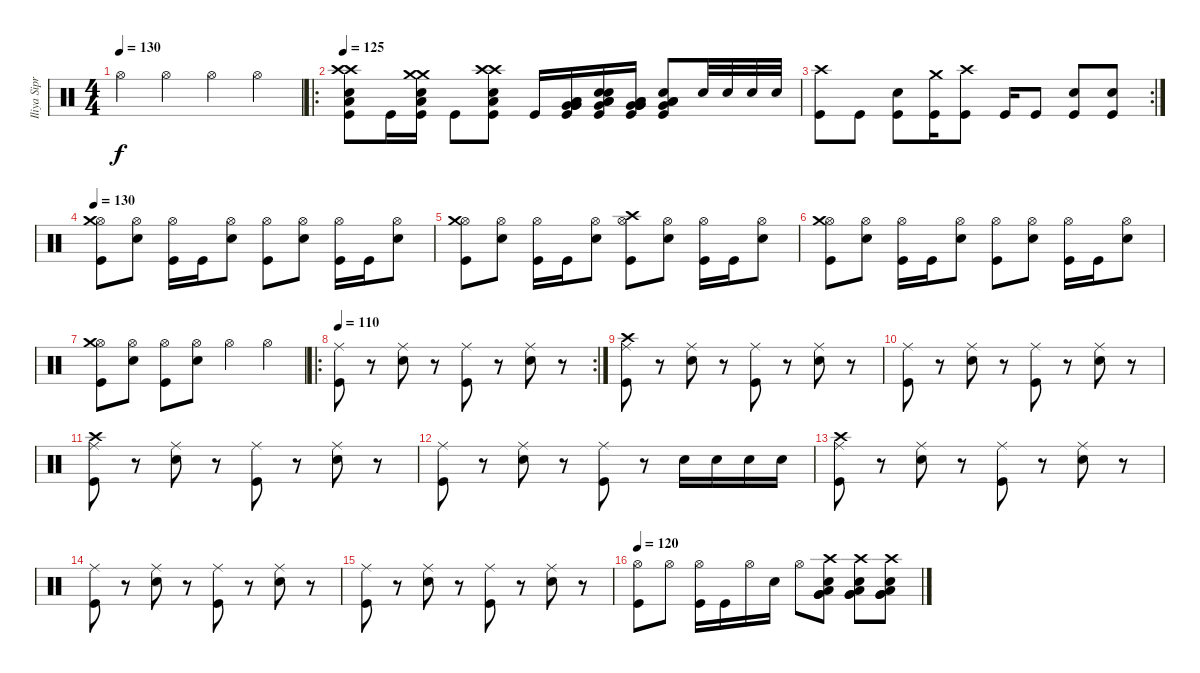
\track ("Iliya Siprov (DRUMS)" "Iliya Sipr") {instrument percussion}
\staff {score}
\articulation defaults
\ts (4 4)
\tempo 130
\tempo 120
\tempo 130
\clef neutral
\ks c "Hi-Hat (open)".4{dy f} "Hi-Hat (open)".4 "Hi-Hat (open)".4 "Hi-Hat (open)".4
|
\ro
\tempo 125
("Crash high (hit)" "Crash high (hit)" "Electric Snare (hit)" "Low Floor Tom (hit)" "Kick (hit)").8 "Kick (hit)".16 ("Crash medium (hit)" "Crash medium (hit)" "Electric Snare (hit)" "Low Floor Tom (hit)" "Kick (hit)").16 "Kick (hit)".8 ("Crash high (hit)" "Crash high (hit)" "Electric Snare (hit)" "Low Floor Tom (hit)" "Kick (hit)").8 "Kick (hit)".16 ("Very Low Tom (hit)" "Low Floor Tom (hit)" "Very Low Tom (hit)" "Low Floor Tom (hit)" "Very Low Tom (hit)" "Kick (hit)").16 ("Very Low Tom (hit)" "Electric Snare (hit)" "Electric Snare (hit)" "Low Floor Tom (hit)" "Low Floor Tom (hit)" "Kick (hit)").16 ("Very Low Tom (hit)" "Very Low Tom (hit)" "Very Low Tom (hit)" "Low Floor Tom (hit)" "Low Floor Tom (hit)" "Kick (hit)").16 ("Low Floor Tom (hit)" "Low Floor Tom (hit)" "Very Low Tom (hit)" "Electric Snare (hit)" "Kick (hit)").8 "Electric Snare (hit)".32 "Electric Snare (hit)".32 "Electric Snare (hit)".32 "Electric Snare (hit)".32 |
\rc 2
("Crash high (hit)" "Kick (hit)").8 "Kick (hit)".8 ("Electric Snare (hit)" "Kick (hit)").8 ("Crash medium (hit)" "Kick (hit)").16 ("Crash high (hit)" "Kick (hit)").8 "Kick (hit)".16 "Kick (hit)".8 ("Electric Snare (hit)" "Kick (hit)").8 ("Electric Snare (hit)" "Kick (hit)").8 |
\tempo 130
("Hi-Hat (open)" "Crash medium (hit)" "Kick (hit)").8 ("Hi-Hat (open)" "Electric Snare (hit)").8 ("Hi-Hat (open)" "Kick (hit)").16 "Kick (hit)".16 ("Hi-Hat (open)" "Electric Snare (hit)").8 ("Hi-Hat (open)" "Kick (hit)").8 ("Hi-Hat (open)" "Electric Snare (hit)").8 ("Hi-Hat (open)" "Kick (hit)").16 "Kick (hit)".16 ("Hi-Hat (open)" "Electric Snare (hit)").8 |
("Hi-Hat (open)" "Crash medium (hit)" "Kick (hit)").8 ("Hi-Hat (open)" "Electric Snare (hit)").8 ("Hi-Hat (open)" "Kick (hit)").16 "Kick (hit)".16 ("Hi-Hat (open)" "Electric Snare (hit)").8 ("Hi-Hat (open)" "Crash high (hit)" "Kick (hit)").8 ("Hi-Hat (open)" "Electric Snare (hit)").8 ("Hi-Hat (open)" "Kick (hit)").16 "Kick (hit)".16 ("Hi-Hat (open)" "Electric Snare (hit)").8 |
("Hi-Hat (open)" "Crash medium (hit)" "Kick (hit)").8 ("Hi-Hat (open)" "Electric Snare (hit)").8 ("Hi-Hat (open)" "Kick (hit)").16 "Kick (hit)".16 ("Hi-Hat (open)" "Electric Snare (hit)").8 ("Hi-Hat (open)" "Kick (hit)").8 ("Hi-Hat (open)" "Electric Snare (hit)").8 ("Hi-Hat (open)" "Kick (hit)").16 "Kick (hit)".16 ("Hi-Hat (open)" "Electric Snare (hit)").8 |
("Hi-Hat (open)" "Crash medium (hit)" "Kick (hit)").8 ("Hi-Hat (open)" "Electric Snare (hit)").8 ("Hi-Hat (open)" "Kick (hit)").8 ("Hi-Hat (open)" "Electric Snare (hit)").8 "Hi-Hat (open)".4 "Hi-Hat (open)".4 |
\ro
\rc 2
\tempo 110
("Ride (middle)" "Kick (hit)").8 r.8 ("Ride (middle)" "Electric Snare (hit)").8 r.8 ("Ride (middle)" "Kick (hit)").8 r.8 ("Ride (middle)" "Electric Snare (hit)").8 r.8 |
("Ride (middle)" "Crash high (hit)" "Kick (hit)").8 r.8 ("Ride (middle)" "Electric Snare (hit)").8 r.8 ("Ride (middle)" "Kick (hit)").8 r.8 ("Ride (middle)" "Electric Snare (hit)").8 r.8 |
("Ride (middle)" "Kick (hit)").8 r.8 ("Ride (middle)" "Electric Snare (hit)").8 r.8 ("Ride (middle)" "Kick (hit)").8 r.8 ("Ride (middle)" "Electric Snare (hit)").8 r.8 |
("Ride (middle)" "Crash high (hit)" "Kick (hit)").8 r.8 ("Ride (middle)" "Electric Snare (hit)").8 r.8 ("Ride (middle)" "Kick (hit)").8 r.8 ("Ride (middle)" "Electric Snare (hit)").8 r.8 |
("Ride (middle)" "Kick (hit)").8 r.8 ("Ride (middle)" "Electric Snare (hit)").8 r.8 ("Ride (middle)" "Kick (hit)").8 r.8 "Electric Snare (hit)".16 "Electric Snare (hit)".16 "Electric Snare (hit)".16 "Electric Snare (hit)".16 |
("Ride (middle)" "Crash high (hit)" "Kick (hit)").8 r.8 ("Ride (middle)" "Electric Snare (hit)").8 r.8 ("Ride (middle)" "Kick (hit)").8 r.8 ("Ride (middle)" "Electric Snare (hit)").8 r.8 |
("Ride (middle)" "Kick (hit)").8 r.8 ("Ride (middle)" "Electric Snare (hit)").8 r.8 ("Ride (middle)" "Kick (hit)").8 r.8 ("Ride (middle)" "Electric Snare (hit)").8 r.8 |
("Ride (middle)" "Kick (hit)").8 r.8 ("Ride (middle)" "Electric Snare (hit)").8 r.8 ("Ride (middle)" "Kick (hit)").8 r.8 ("Ride (middle)" "Electric Snare (hit)").8 r.8 |
\tempo 120
("Hi-Hat (open)" "Kick (hit)").8 "Hi-Hat (open)".8 ("Hi-Hat (open)" "Kick (hit)").16 "Kick (hit)".16 "Hi-Hat (open)".16 "Electric Snare (hit)".16 "Hi-Hat (open)".8 ("Very Low Tom (hit)" "Very Low Tom (hit)" "Low Floor Tom (hit)" "Crash high (hit)" "Electric Snare (hit)").8 ("Very Low Tom (hit)" "Very Low Tom (hit)" "Low Floor Tom (hit)" "Crash high (hit)" "Electric Snare (hit)").8 ("Very Low Tom (hit)" "Very Low Tom (hit)" "Low Floor Tom (hit)" "Crash high (hit)" "Electric Snare (hit)").8
